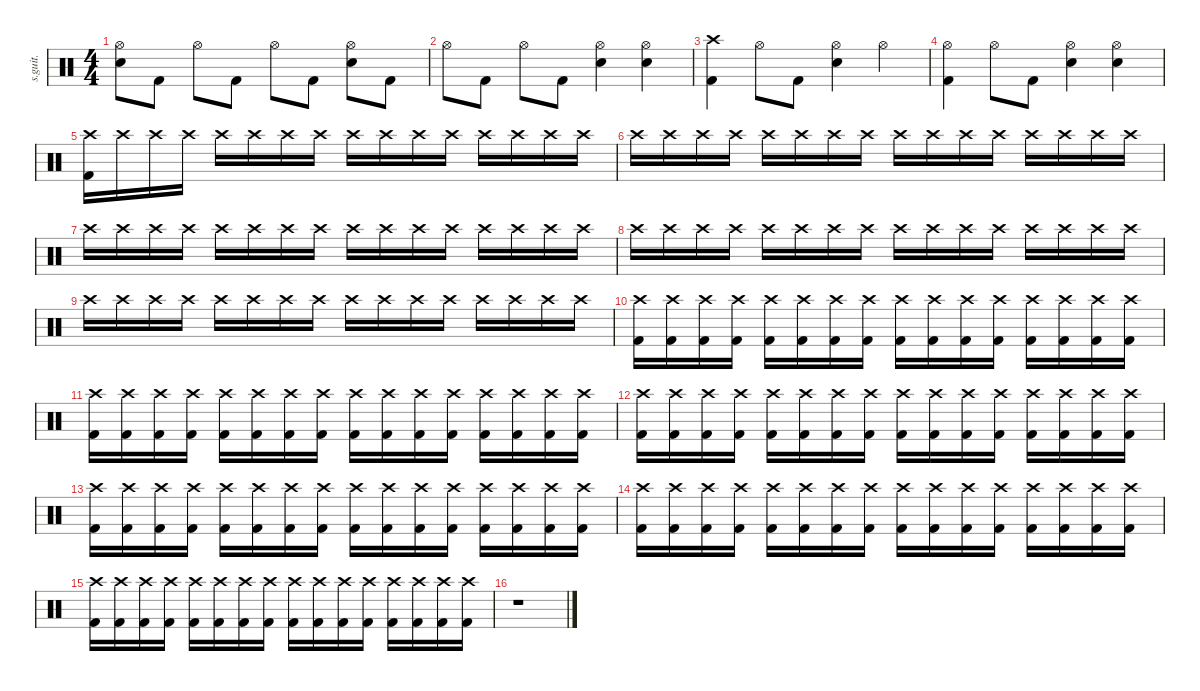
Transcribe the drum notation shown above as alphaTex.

\defaultSystemsLayout 4
\hideDynamics
\bracketExtendMode nobrackets
\track ("" "s.guit.") {instrument percussion}
\staff {score}
\articulation defaults
\ts (4 4)
\tempo (160 hide)
\clef neutral
\ks c
("Hi-Hat (open)" "Snare (hit) 2").8{dy f} "Kick (hit) 2".8 "Hi-Hat (open)".8 "Kick (hit) 2".8 "Hi-Hat (open)".8 "Kick (hit) 2".8 ("Hi-Hat (open)" "Snare (hit) 2").8 "Kick (hit) 2".8 |
"Hi-Hat (open)".8 "Kick (hit) 2".8 "Hi-Hat (open)".8 "Kick (hit) 2".8 ("Hi-Hat (open)" "Snare (hit) 2").4 ("Hi-Hat (open)" "Snare (hit) 2").4 |
("Crash high (hit)" "Kick (hit) 2").4 "Hi-Hat (open)".8 "Kick (hit) 2".8 ("Hi-Hat (open)" "Snare (hit) 2").4 "Hi-Hat (open)".4 |
("Hi-Hat (open)" "Kick (hit) 2").4 "Hi-Hat (open)".8 "Kick (hit) 2".8 ("Hi-Hat (open)" "Snare (hit) 2").4 ("Hi-Hat (open)" "Snare (hit) 2").4 |
("Crash high (hit)" "Kick (hit) 2").16 "Crash high (hit)".16 "Crash high (hit)".16 "Crash high (hit)".16 "Crash high (hit)".16 "Crash high (hit)".16 "Crash high (hit)".16 "Crash high (hit)".16 "Crash high (hit)".16 "Crash high (hit)".16 "Crash high (hit)".16 "Crash high (hit)".16 "Crash high (hit)".16 "Crash high (hit)".16 "Crash high (hit)".16 "Crash high (hit)".16 |
"Crash high (hit)".16 "Crash high (hit)".16 "Crash high (hit)".16 "Crash high (hit)".16 "Crash high (hit)".16 "Crash high (hit)".16 "Crash high (hit)".16 "Crash high (hit)".16 "Crash high (hit)".16 "Crash high (hit)".16 "Crash high (hit)".16 "Crash high (hit)".16 "Crash high (hit)".16 "Crash high (hit)".16 "Crash high (hit)".16 "Crash high (hit)".16 |
"Crash high (hit)".16 "Crash high (hit)".16 "Crash high (hit)".16 "Crash high (hit)".16 "Crash high (hit)".16 "Crash high (hit)".16 "Crash high (hit)".16 "Crash high (hit)".16 "Crash high (hit)".16 "Crash high (hit)".16 "Crash high (hit)".16 "Crash high (hit)".16 "Crash high (hit)".16 "Crash high (hit)".16 "Crash high (hit)".16 "Crash high (hit)".16 |
"Crash high (hit)".16 "Crash high (hit)".16 "Crash high (hit)".16 "Crash high (hit)".16 "Crash high (hit)".16 "Crash high (hit)".16 "Crash high (hit)".16 "Crash high (hit)".16 "Crash high (hit)".16 "Crash high (hit)".16 "Crash high (hit)".16 "Crash high (hit)".16 "Crash high (hit)".16 "Crash high (hit)".16 "Crash high (hit)".16 "Crash high (hit)".16 |
"Crash high (hit)".16 "Crash high (hit)".16 "Crash high (hit)".16 "Crash high (hit)".16 "Crash high (hit)".16 "Crash high (hit)".16 "Crash high (hit)".16 "Crash high (hit)".16 "Crash high (hit)".16 "Crash high (hit)".16 "Crash high (hit)".16 "Crash high (hit)".16 "Crash high (hit)".16 "Crash high (hit)".16 "Crash high (hit)".16 "Crash high (hit)".16 |
("Crash high (hit)" "Kick (hit) 2").16 ("Crash high (hit)" "Kick (hit) 2").16 ("Crash high (hit)" "Kick (hit) 2").16 ("Crash high (hit)" "Kick (hit) 2").16 ("Crash high (hit)" "Kick (hit) 2").16 ("Crash high (hit)" "Kick (hit) 2").16 ("Crash high (hit)" "Kick (hit) 2").16 ("Crash high (hit)" "Kick (hit) 2").16 ("Crash high (hit)" "Kick (hit) 2").16 ("Crash high (hit)" "Kick (hit) 2").16 ("Crash high (hit)" "Kick (hit) 2").16 ("Crash high (hit)" "Kick (hit) 2").16 ("Crash high (hit)" "Kick (hit) 2").16 ("Crash high (hit)" "Kick (hit) 2").16 ("Crash high (hit)" "Kick (hit) 2").16 ("Crash high (hit)" "Kick (hit) 2").16 |
("Crash high (hit)" "Kick (hit) 2").16 ("Crash high (hit)" "Kick (hit) 2").16 ("Crash high (hit)" "Kick (hit) 2").16 ("Crash high (hit)" "Kick (hit) 2").16 ("Crash high (hit)" "Kick (hit) 2").16 ("Crash high (hit)" "Kick (hit) 2").16 ("Crash high (hit)" "Kick (hit) 2").16 ("Crash high (hit)" "Kick (hit) 2").16 ("Crash high (hit)" "Kick (hit) 2").16 ("Crash high (hit)" "Kick (hit) 2").16 ("Crash high (hit)" "Kick (hit) 2").16 ("Crash high (hit)" "Kick (hit) 2").16 ("Crash high (hit)" "Kick (hit) 2").16 ("Crash high (hit)" "Kick (hit) 2").16 ("Crash high (hit)" "Kick (hit) 2").16 ("Crash high (hit)" "Kick (hit) 2").16 |
("Crash high (hit)" "Kick (hit) 2").16 ("Crash high (hit)" "Kick (hit) 2").16 ("Crash high (hit)" "Kick (hit) 2").16 ("Crash high (hit)" "Kick (hit) 2").16 ("Crash high (hit)" "Kick (hit) 2").16 ("Crash high (hit)" "Kick (hit) 2").16 ("Crash high (hit)" "Kick (hit) 2").16 ("Crash high (hit)" "Kick (hit) 2").16 ("Crash high (hit)" "Kick (hit) 2").16 ("Crash high (hit)" "Kick (hit) 2").16 ("Crash high (hit)" "Kick (hit) 2").16 ("Crash high (hit)" "Kick (hit) 2").16 ("Crash high (hit)" "Kick (hit) 2").16 ("Crash high (hit)" "Kick (hit) 2").16 ("Crash high (hit)" "Kick (hit) 2").16 ("Crash high (hit)" "Kick (hit) 2").16 |
("Crash high (hit)" "Kick (hit) 2").16 ("Crash high (hit)" "Kick (hit) 2").16 ("Crash high (hit)" "Kick (hit) 2").16 ("Crash high (hit)" "Kick (hit) 2").16 ("Crash high (hit)" "Kick (hit) 2").16 ("Crash high (hit)" "Kick (hit) 2").16 ("Crash high (hit)" "Kick (hit) 2").16 ("Crash high (hit)" "Kick (hit) 2").16 ("Crash high (hit)" "Kick (hit) 2").16 ("Crash high (hit)" "Kick (hit) 2").16 ("Crash high (hit)" "Kick (hit) 2").16 ("Crash high (hit)" "Kick (hit) 2").16 ("Crash high (hit)" "Kick (hit) 2").16 ("Crash high (hit)" "Kick (hit) 2").16 ("Crash high (hit)" "Kick (hit) 2").16 ("Crash high (hit)" "Kick (hit) 2").16 |
("Crash high (hit)" "Kick (hit) 2").16 ("Crash high (hit)" "Kick (hit) 2").16 ("Crash high (hit)" "Kick (hit) 2").16 ("Crash high (hit)" "Kick (hit) 2").16 ("Crash high (hit)" "Kick (hit) 2").16 ("Crash high (hit)" "Kick (hit) 2").16 ("Crash high (hit)" "Kick (hit) 2").16 ("Crash high (hit)" "Kick (hit) 2").16 ("Crash high (hit)" "Kick (hit) 2").16 ("Crash high (hit)" "Kick (hit) 2").16 ("Crash high (hit)" "Kick (hit) 2").16 ("Crash high (hit)" "Kick (hit) 2").16 ("Crash high (hit)" "Kick (hit) 2").16 ("Crash high (hit)" "Kick (hit) 2").16 ("Crash high (hit)" "Kick (hit) 2").16 ("Crash high (hit)" "Kick (hit) 2").16 |
("Crash high (hit)" "Kick (hit) 2").16 ("Crash high (hit)" "Kick (hit) 2").16 ("Crash high (hit)" "Kick (hit) 2").16 ("Crash high (hit)" "Kick (hit) 2").16 ("Crash high (hit)" "Kick (hit) 2").16 ("Crash high (hit)" "Kick (hit) 2").16 ("Crash high (hit)" "Kick (hit) 2").16 ("Crash high (hit)" "Kick (hit) 2").16 ("Crash high (hit)" "Kick (hit) 2").16 ("Crash high (hit)" "Kick (hit) 2").16 ("Crash high (hit)" "Kick (hit) 2").16 ("Crash high (hit)" "Kick (hit) 2").16 ("Crash high (hit)" "Kick (hit) 2").16 ("Crash high (hit)" "Kick (hit) 2").16 ("Crash high (hit)" "Kick (hit) 2").16 ("Crash high (hit)" "Kick (hit) 2").16 |
r.1
